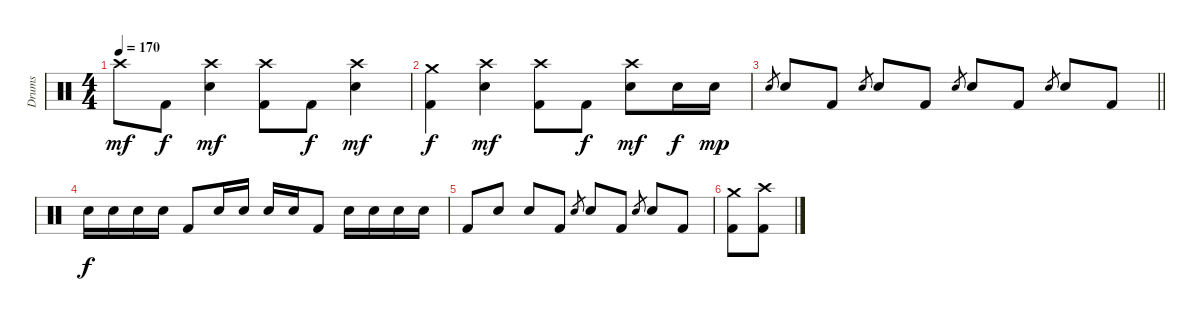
\track ("Drums" "Drums") {instrument percussion}
\staff {score}
\articulation defaults
\ts (4 4)
\tempo 170
\clef neutral
\ks c "Crash high (hit)".8{dy mf} "Kick (hit) 2".8{dy f}
("Crash high (hit)" "Electric Snare (hit)").4{dy mf} ("Crash high (hit)" "Kick (hit) 2").8 "Kick (hit) 2".8{dy f} ("Crash high (hit)" "Electric Snare (hit)").4{dy mf} |
("Crash medium (hit)" "Kick (hit) 2").4{dy f} ("Crash high (hit)" "Electric Snare (hit)").4{dy mf} ("Crash high (hit)" "Kick (hit) 2").8 "Kick (hit) 2".8{dy f} ("Crash high (hit)" "Electric Snare (hit)").8{dy mf} "Electric Snare (hit)".16{dy f} "Electric Snare (hit)".16{dy mp} |
\barLineRight lightlight "Electric Snare (hit)".8{gr} "Electric Snare (hit)".8 "Kick (hit) 2".8 "Electric Snare (hit)".8{gr} "Electric Snare (hit)".8 "Kick (hit) 2".8 "Electric Snare (hit)".8{gr} "Electric Snare (hit)".8 "Kick (hit) 2".8 "Electric Snare (hit)".8{gr} "Electric Snare (hit)".8 "Kick (hit) 2".8
|
"Electric Snare (hit)".16{dy f} "Electric Snare (hit)".16 "Electric Snare (hit)".16 "Electric Snare (hit)".16 "Kick (hit) 2".8 "Electric Snare (hit)".16 "Electric Snare (hit)".16 "Electric Snare (hit)".16 "Electric Snare (hit)".16 "Kick (hit) 2".8 "Electric Snare (hit)".16 "Electric Snare (hit)".16 "Electric Snare (hit)".16 "Electric Snare (hit)".16 |
"Kick (hit) 2".8 "Electric Snare (hit)".8 "Electric Snare (hit)".8 "Kick (hit) 2".8 "Electric Snare (hit)".8{gr} "Electric Snare (hit)".8 "Kick (hit) 2".8 "Electric Snare (hit)".8{gr} "Electric Snare (hit)".8 "Kick (hit) 2".8 |
("Crash medium (hit)" "Kick (hit) 2").8 ("Crash high (hit)" "Kick (hit) 2").8
